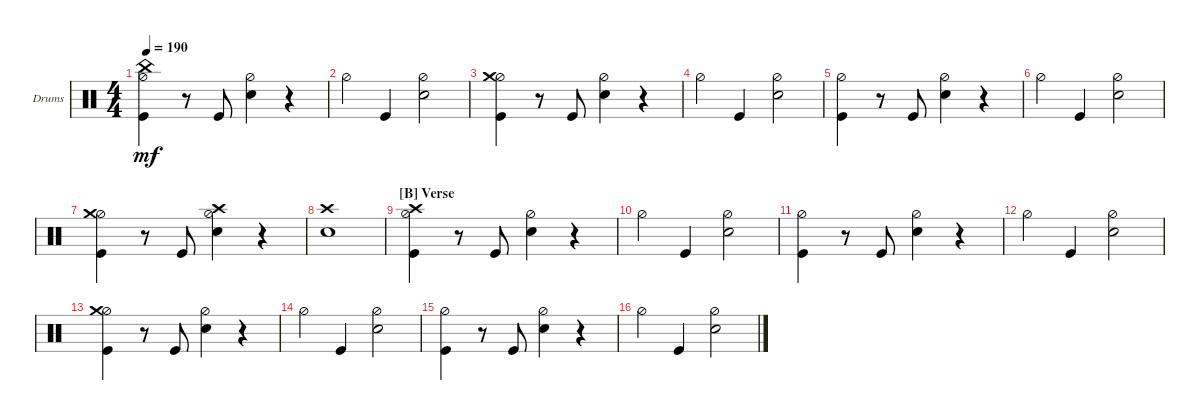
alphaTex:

\defaultSystemsLayout 4
\bracketExtendMode groupsimilarinstruments
\firstSystemTrackNameOrientation horizontal
\otherSystemsTrackNameOrientation horizontal
\track ("Drumkit" "Drums") {instrument percussion}
\staff {score}
\articulation defaults
\ts (4 4)
\tempo 190
\clef neutral
\ks c
("Hi-Hat (half)" "Kick (hit)" "China (hit)").4{dy mf} r.8 "Kick (hit)".8 ("Hi-Hat (half)" "Snare (hit) 2").4 r.4 |
"Hi-Hat (half)".4 "Kick (hit)".4 ("Snare (hit) 2" "Hi-Hat (half)").2 |
("Hi-Hat (half)" "Kick (hit)" "Crash medium (hit)").4 r.8 "Kick (hit)".8 ("Hi-Hat (half)" "Snare (hit) 2").4 r.4 |
"Hi-Hat (half)".4 "Kick (hit)".4 ("Snare (hit) 2" "Hi-Hat (half)").2 |
("Hi-Hat (half)" "Kick (hit)").4 r.8 "Kick (hit)".8 ("Hi-Hat (half)" "Snare (hit) 2").4 r.4 |
"Hi-Hat (half)".4 "Kick (hit)".4 ("Snare (hit) 2" "Hi-Hat (half)").2 |
("Hi-Hat (half)" "Kick (hit)" "Crash medium (hit)").4 r.8 "Kick (hit)".8 ("Hi-Hat (half)" "Snare (hit) 2" "Crash high (hit)").4 r.4 |
("Snare (hit) 2" "Crash high (hit)").1 |
\section ("B" "Verse")
("Hi-Hat (half)" "Kick (hit)" "Crash high (hit)").4 r.8 "Kick (hit)".8 ("Hi-Hat (half)" "Snare (hit) 2").4 r.4 |
"Hi-Hat (half)".4 "Kick (hit)".4 ("Snare (hit) 2" "Hi-Hat (half)").2 |
("Hi-Hat (half)" "Kick (hit)").4 r.8 "Kick (hit)".8 ("Hi-Hat (half)" "Snare (hit) 2").4 r.4 |
"Hi-Hat (half)".4 "Kick (hit)".4 ("Snare (hit) 2" "Hi-Hat (half)").2 |
("Hi-Hat (half)" "Kick (hit)" "Crash medium (hit)").4 r.8 "Kick (hit)".8 ("Hi-Hat (half)" "Snare (hit) 2").4 r.4 |
"Hi-Hat (half)".4 "Kick (hit)".4 ("Snare (hit) 2" "Hi-Hat (half)").2 |
("Hi-Hat (half)" "Kick (hit)").4 r.8 "Kick (hit)".8 ("Hi-Hat (half)" "Snare (hit) 2").4 r.4 |
"Hi-Hat (half)".4 "Kick (hit)".4 ("Snare (hit) 2" "Hi-Hat (half)").2
